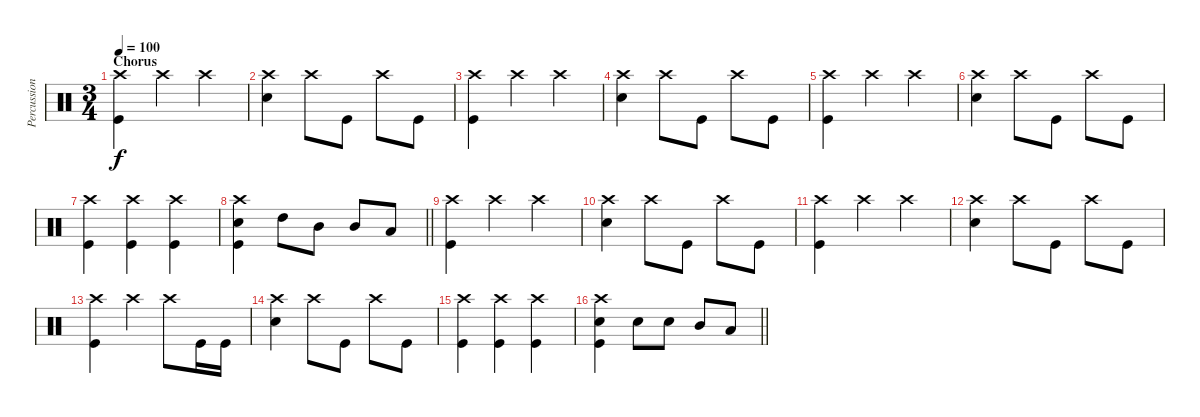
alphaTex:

\track ("Percussion" "Percussion") {instrument percussion}
\staff {score}
\articulation defaults
\ts (3 4)
\section ("" "Chorus")
\tempo 100
\clef neutral
\ks aminor
("Crash high (hit)" "Kick (hit)").4{dy f} "Crash high (hit)".4 "Crash high (hit)".4 |
("Crash high (hit)" "Snare (hit) 2").4 "Crash high (hit)".8 "Kick (hit)".8 "Crash high (hit)".8 "Kick (hit)".8 |
("Crash high (hit)" "Kick (hit)").4 "Crash high (hit)".4 "Crash high (hit)".4 |
("Crash high (hit)" "Snare (hit) 2").4 "Crash high (hit)".8 "Kick (hit)".8 "Crash high (hit)".8 "Kick (hit)".8 |
("Crash high (hit)" "Kick (hit)").4 "Crash high (hit)".4 "Crash high (hit)".4 |
("Crash high (hit)" "Snare (hit) 2").4 "Crash high (hit)".8 "Kick (hit)".8 "Crash high (hit)".8 "Kick (hit)".8 |
("Crash high (hit)" "Kick (hit)").4 ("Crash high (hit)" "Kick (hit)").4 ("Crash high (hit)" "Kick (hit)").4 |
\barLineRight lightlight
("Crash high (hit)" "Snare (hit) 2" "Kick (hit)").4 "High Tom (hit)".8 "Mid Tom (hit)".8 "Mid Tom (hit)".8 "Low Tom (hit)".8 |
\section ("" "")
("Crash high (hit)" "Kick (hit)").4 "Crash high (hit)".4 "Crash high (hit)".4 |
("Crash high (hit)" "Snare (hit) 2").4 "Crash high (hit)".8 "Kick (hit)".8 "Crash high (hit)".8 "Kick (hit)".8 |
("Crash high (hit)" "Kick (hit)").4 "Crash high (hit)".4 "Crash high (hit)".4 |
("Crash high (hit)" "Snare (hit) 2").4 "Crash high (hit)".8 "Kick (hit)".8 "Crash high (hit)".8 "Kick (hit)".8 |
("Crash high (hit)" "Kick (hit)").4 "Crash high (hit)".4 "Crash high (hit)".8 "Kick (hit)".16 "Kick (hit)".16 |
("Crash high (hit)" "Snare (hit) 2").4 "Crash high (hit)".8 "Kick (hit)".8 "Crash high (hit)".8 "Kick (hit)".8 |
("Crash high (hit)" "Kick (hit)").4 ("Crash high (hit)" "Kick (hit)").4 ("Crash high (hit)" "Kick (hit)").4 |
\barLineRight lightlight
("Crash high (hit)" "Snare (hit) 2" "Kick (hit)").4 "Snare (hit) 2".8 "Snare (hit) 2".8 "Mid Tom (hit)".8 "Low Tom (hit)".8
